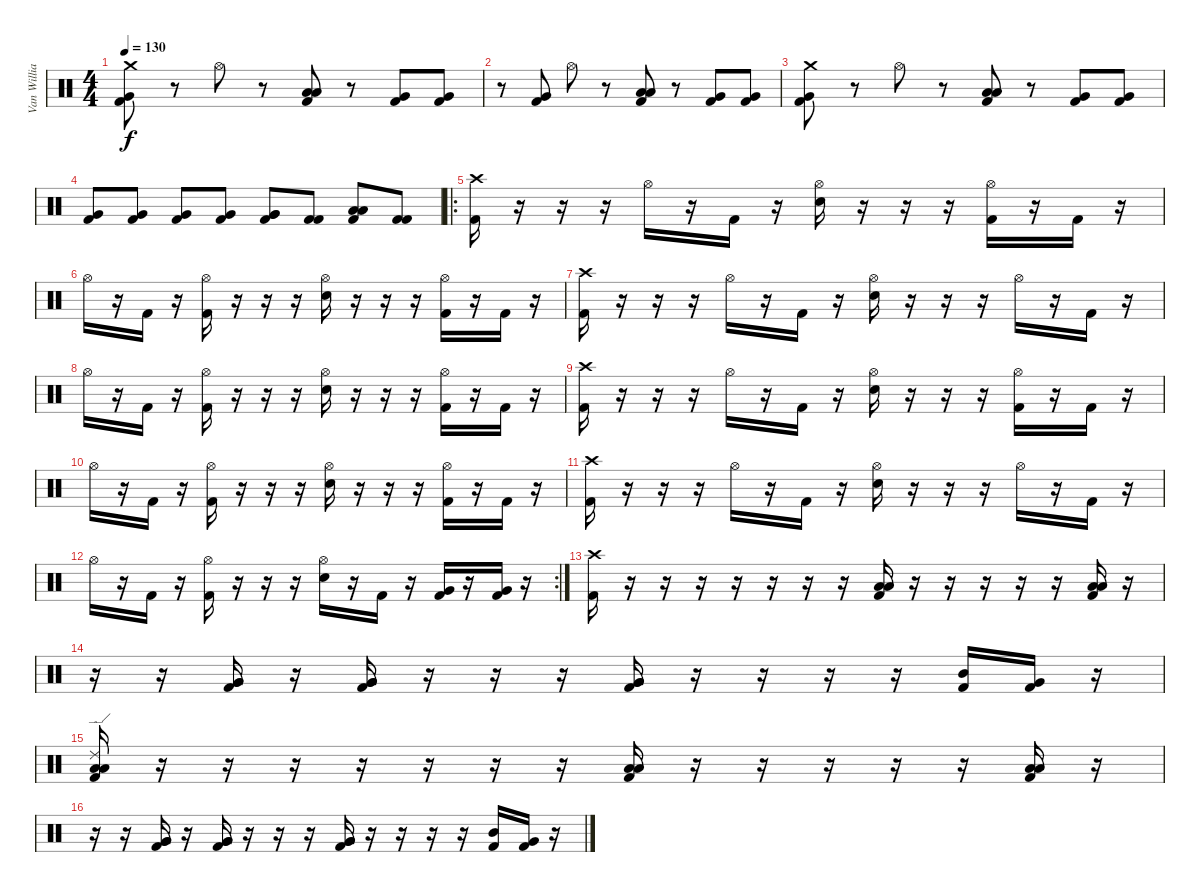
\track ("Van Williams" "Van Willia") {instrument percussion}
\staff {score}
\articulation defaults
\ts (4 4)
\tempo 130
\clef neutral
\ks c
("Crash medium (hit)" "Kick (hit) 2" "Very Low Tom (hit)").8{dy f} r.8 "Hi-Hat (open)".8 r.8 ("Kick (hit) 2" "Low Tom (hit)" "Low Tom (hit)").8 r.8 ("Kick (hit) 2" "Very Low Tom (hit)").8 ("Kick (hit) 2" "Very Low Tom (hit)").8 |
r.8 ("Kick (hit) 2" "Very Low Tom (hit)").8 "Hi-Hat (open)".8 r.8 ("Kick (hit) 2" "Low Tom (hit)" "Low Tom (hit)").8 r.8 ("Kick (hit) 2" "Very Low Tom (hit)").8 ("Kick (hit) 2" "Very Low Tom (hit)").8 |
("Crash medium (hit)" "Kick (hit) 2" "Very Low Tom (hit)").8 r.8 "Hi-Hat (open)".8 r.8 ("Kick (hit) 2" "Low Tom (hit)" "Low Tom (hit)").8 r.8 ("Kick (hit) 2" "Very Low Tom (hit)").8 ("Kick (hit) 2" "Very Low Tom (hit)").8 |
("Kick (hit) 2" "Very Low Tom (hit)").8 ("Kick (hit) 2" "Very Low Tom (hit)").8 ("Kick (hit) 2" "Very Low Tom (hit)").8 ("Kick (hit) 2" "Very Low Tom (hit)").8 ("Kick (hit) 2" "Very Low Tom (hit)" "Very Low Tom (hit)").8 ("Kick (hit) 2" "Kick (hit) 2").8 ("Kick (hit) 2" "Low Floor Tom (hit)" "Low Floor Tom (hit)").8 ("Kick (hit) 2" "Kick (hit) 2").8 |
\ro
("Crash high (hit)" "Kick (hit) 2").16 r.16 r.16 r.16 "Hi-Hat (open)".16 r.16 "Kick (hit) 2".16 r.16 ("Hi-Hat (open)" "Electric Snare (hit)").16 r.16 r.16 r.16 ("Hi-Hat (open)" "Kick (hit) 2").16 r.16 "Kick (hit) 2".16 r.16 |
"Hi-Hat (open)".16 r.16 "Kick (hit) 2".16 r.16 ("Hi-Hat (open)" "Kick (hit) 2").16 r.16 r.16 r.16 ("Hi-Hat (open)" "Electric Snare (hit)").16 r.16 r.16 r.16 ("Hi-Hat (open)" "Kick (hit) 2").16 r.16 "Kick (hit) 2".16 r.16 |
("Crash high (hit)" "Kick (hit) 2").16 r.16 r.16 r.16 "Hi-Hat (open)".16 r.16 "Kick (hit) 2".16 r.16 ("Hi-Hat (open)" "Electric Snare (hit)").16 r.16 r.16 r.16 "Hi-Hat (open)".16 r.16 "Kick (hit) 2".16 r.16 |
"Hi-Hat (open)".16 r.16 "Kick (hit) 2".16 r.16 ("Hi-Hat (open)" "Kick (hit) 2").16 r.16 r.16 r.16 ("Hi-Hat (open)" "Electric Snare (hit)").16 r.16 r.16 r.16 ("Hi-Hat (open)" "Kick (hit) 2").16 r.16 "Kick (hit) 2".16 r.16 |
("Crash high (hit)" "Kick (hit) 2").16 r.16 r.16 r.16 "Hi-Hat (open)".16 r.16 "Kick (hit) 2".16 r.16 ("Hi-Hat (open)" "Electric Snare (hit)").16 r.16 r.16 r.16 ("Hi-Hat (open)" "Kick (hit) 2").16 r.16 "Kick (hit) 2".16 r.16 |
"Hi-Hat (open)".16 r.16 "Kick (hit) 2".16 r.16 ("Hi-Hat (open)" "Kick (hit) 2").16 r.16 r.16 r.16 ("Hi-Hat (open)" "Electric Snare (hit)").16 r.16 r.16 r.16 ("Hi-Hat (open)" "Kick (hit) 2").16 r.16 "Kick (hit) 2".16 r.16 |
("Crash high (hit)" "Kick (hit) 2").16 r.16 r.16 r.16 "Hi-Hat (open)".16 r.16 "Kick (hit) 2".16 r.16 ("Hi-Hat (open)" "Electric Snare (hit)").16 r.16 r.16 r.16 "Hi-Hat (open)".16 r.16 "Kick (hit) 2".16 r.16 |
\rc 2 "Hi-Hat (open)".16
r.16 "Kick (hit) 2".16 r.16 ("Hi-Hat (open)" "Kick (hit) 2").16 r.16 r.16 r.16 ("Hi-Hat (open)" "Electric Snare (hit)").16 r.16 "Kick (hit) 2".16 r.16 ("Kick (hit) 2" "Very Low Tom (hit)").16 r.16 ("Kick (hit) 2" "Very Low Tom (hit)").16 r.16 |
("Crash high (hit)" "Kick (hit) 2").16 r.16 r.16 r.16 r.16 r.16 r.16 r.16 ("Kick (hit) 2" "Low Tom (hit)" "Low Tom (hit)").16 r.16 r.16 r.16 r.16 r.16 ("Kick (hit) 2" "Low Tom (hit)" "Low Tom (hit)").16 r.16 |
r.16 r.16 ("Kick (hit) 2" "Very Low Tom (hit)" "Very Low Tom (hit)").16 r.16 ("Kick (hit) 2" "Very Low Tom (hit)" "Very Low Tom (hit)").16 r.16 r.16 r.16 ("Kick (hit) 2" "Very Low Tom (hit)" "Very Low Tom (hit)").16 r.16 r.16 r.16 r.16 ("Kick (hit) 2" "Mid Tom (hit)").16 ("Kick (hit) 2" "Very Low Tom (hit)").16 r.16 |
("Ride (edge) 2" "Kick (hit) 2" "Low Tom (hit)" "Low Tom (hit)").16 r.16 r.16 r.16 r.16 r.16 r.16 r.16 ("Kick (hit) 2" "Low Tom (hit)" "Low Tom (hit)").16 r.16 r.16 r.16 r.16 r.16 ("Kick (hit) 2" "Low Tom (hit)" "Low Tom (hit)").16 r.16 |
r.16 r.16 ("Kick (hit) 2" "Very Low Tom (hit)" "Very Low Tom (hit)").16 r.16 ("Kick (hit) 2" "Very Low Tom (hit)" "Very Low Tom (hit)").16 r.16 r.16 r.16 ("Kick (hit) 2" "Very Low Tom (hit)" "Very Low Tom (hit)").16 r.16 r.16 r.16 r.16 ("Kick (hit) 2" "Mid Tom (hit)").16 ("Kick (hit) 2" "Very Low Tom (hit)").16 r.16
